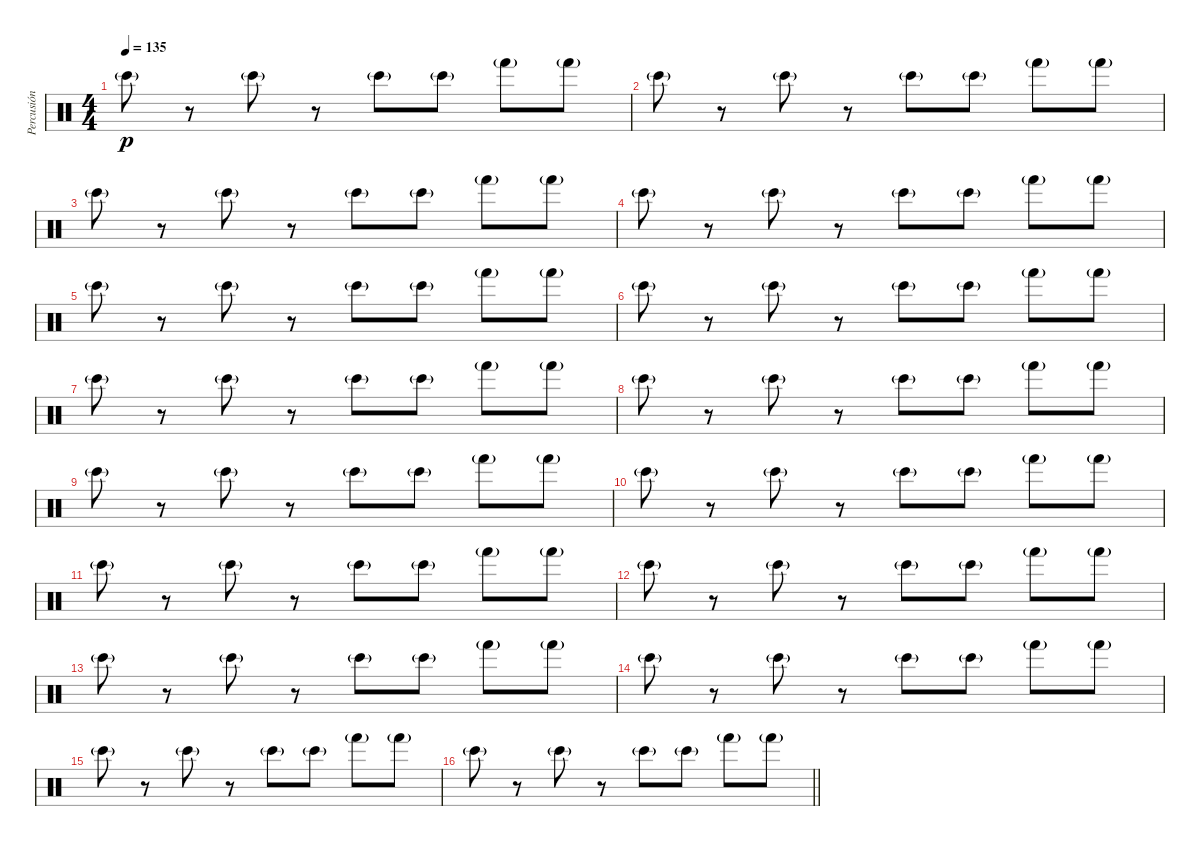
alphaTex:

\track ("Percusión" "Percusión") {instrument percussion}
\staff {score}
\articulation defaults
\ts (4 4)
\tempo 135
\clef neutral
\ks c "Bongo High (hit)"{g}.8{dy p}
r.8 "Bongo High (hit)"{g}.8 r.8 "Bongo High (hit)"{g}.8 "Bongo High (hit)"{g}.8 "Hand (hit)"{g}.8 "Hand (hit)"{g}.8 |
"Bongo High (hit)"{g}.8 r.8 "Bongo High (hit)"{g}.8 r.8 "Bongo High (hit)"{g}.8 "Bongo High (hit)"{g}.8 "Hand (hit)"{g}.8 "Hand (hit)"{g}.8 |
"Bongo High (hit)"{g}.8 r.8 "Bongo High (hit)"{g}.8 r.8 "Bongo High (hit)"{g}.8 "Bongo High (hit)"{g}.8 "Hand (hit)"{g}.8 "Hand (hit)"{g}.8 |
"Bongo High (hit)"{g}.8 r.8 "Bongo High (hit)"{g}.8 r.8 "Bongo High (hit)"{g}.8 "Bongo High (hit)"{g}.8 "Hand (hit)"{g}.8 "Hand (hit)"{g}.8 |
"Bongo High (hit)"{g}.8 r.8 "Bongo High (hit)"{g}.8 r.8 "Bongo High (hit)"{g}.8 "Bongo High (hit)"{g}.8 "Hand (hit)"{g}.8 "Hand (hit)"{g}.8 |
"Bongo High (hit)"{g}.8 r.8 "Bongo High (hit)"{g}.8 r.8 "Bongo High (hit)"{g}.8 "Bongo High (hit)"{g}.8 "Hand (hit)"{g}.8 "Hand (hit)"{g}.8 |
"Bongo High (hit)"{g}.8 r.8 "Bongo High (hit)"{g}.8 r.8 "Bongo High (hit)"{g}.8 "Bongo High (hit)"{g}.8 "Hand (hit)"{g}.8 "Hand (hit)"{g}.8 |
"Bongo High (hit)"{g}.8 r.8 "Bongo High (hit)"{g}.8 r.8 "Bongo High (hit)"{g}.8 "Bongo High (hit)"{g}.8 "Hand (hit)"{g}.8 "Hand (hit)"{g}.8 |
"Bongo High (hit)"{g}.8 r.8 "Bongo High (hit)"{g}.8 r.8 "Bongo High (hit)"{g}.8 "Bongo High (hit)"{g}.8 "Hand (hit)"{g}.8 "Hand (hit)"{g}.8 |
"Bongo High (hit)"{g}.8 r.8 "Bongo High (hit)"{g}.8 r.8 "Bongo High (hit)"{g}.8 "Bongo High (hit)"{g}.8 "Hand (hit)"{g}.8 "Hand (hit)"{g}.8 |
"Bongo High (hit)"{g}.8 r.8 "Bongo High (hit)"{g}.8 r.8 "Bongo High (hit)"{g}.8 "Bongo High (hit)"{g}.8 "Hand (hit)"{g}.8 "Hand (hit)"{g}.8 |
"Bongo High (hit)"{g}.8 r.8 "Bongo High (hit)"{g}.8 r.8 "Bongo High (hit)"{g}.8 "Bongo High (hit)"{g}.8 "Hand (hit)"{g}.8 "Hand (hit)"{g}.8 |
"Bongo High (hit)"{g}.8 r.8 "Bongo High (hit)"{g}.8 r.8 "Bongo High (hit)"{g}.8 "Bongo High (hit)"{g}.8 "Hand (hit)"{g}.8 "Hand (hit)"{g}.8 |
"Bongo High (hit)"{g}.8 r.8 "Bongo High (hit)"{g}.8 r.8 "Bongo High (hit)"{g}.8 "Bongo High (hit)"{g}.8 "Hand (hit)"{g}.8 "Hand (hit)"{g}.8 |
"Bongo High (hit)"{g}.8 r.8 "Bongo High (hit)"{g}.8 r.8 "Bongo High (hit)"{g}.8 "Bongo High (hit)"{g}.8 "Hand (hit)"{g}.8 "Hand (hit)"{g}.8 |
\barLineRight lightlight "Bongo High (hit)"{g}.8
r.8 "Bongo High (hit)"{g}.8 r.8 "Bongo High (hit)"{g}.8 "Bongo High (hit)"{g}.8 "Hand (hit)"{g}.8 "Hand (hit)"{g}.8
